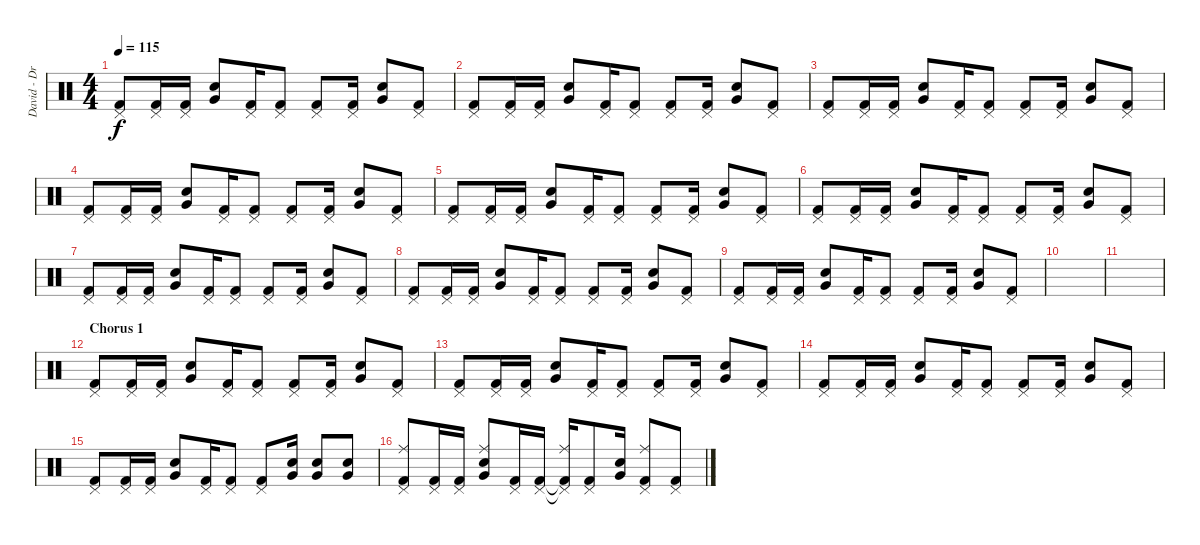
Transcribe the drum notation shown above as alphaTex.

\track ("David - Drums" "David - Dr") {instrument percussion}
\staff {score}
\articulation defaults
\ts (4 4)
\tempo 115
\clef neutral
\ks c
("Kick (hit) 2" "Pedal Hi-Hat (hit)").8{dy f} ("Kick (hit) 2" "Pedal Hi-Hat (hit)").16 ("Kick (hit) 2" "Pedal Hi-Hat (hit)").16 ("Snare (hit) 2" "Very Low Tom (hit)").8 ("Kick (hit) 2" "Pedal Hi-Hat (hit)").16 ("Kick (hit) 2" "Pedal Hi-Hat (hit)").8 ("Kick (hit) 2" "Pedal Hi-Hat (hit)").8 ("Kick (hit) 2" "Pedal Hi-Hat (hit)").16 ("Snare (hit) 2" "Very Low Tom (hit)").8 ("Kick (hit) 2" "Pedal Hi-Hat (hit)").8 |
("Kick (hit) 2" "Pedal Hi-Hat (hit)").8 ("Kick (hit) 2" "Pedal Hi-Hat (hit)").16 ("Kick (hit) 2" "Pedal Hi-Hat (hit)").16 ("Snare (hit) 2" "Very Low Tom (hit)").8 ("Kick (hit) 2" "Pedal Hi-Hat (hit)").16 ("Kick (hit) 2" "Pedal Hi-Hat (hit)").8 ("Kick (hit) 2" "Pedal Hi-Hat (hit)").8 ("Kick (hit) 2" "Pedal Hi-Hat (hit)").16 ("Snare (hit) 2" "Very Low Tom (hit)").8 ("Kick (hit) 2" "Pedal Hi-Hat (hit)").8 |
("Kick (hit) 2" "Pedal Hi-Hat (hit)").8 ("Kick (hit) 2" "Pedal Hi-Hat (hit)").16 ("Kick (hit) 2" "Pedal Hi-Hat (hit)").16 ("Snare (hit) 2" "Very Low Tom (hit)").8 ("Kick (hit) 2" "Pedal Hi-Hat (hit)").16 ("Kick (hit) 2" "Pedal Hi-Hat (hit)").8 ("Kick (hit) 2" "Pedal Hi-Hat (hit)").8 ("Kick (hit) 2" "Pedal Hi-Hat (hit)").16 ("Snare (hit) 2" "Very Low Tom (hit)").8 ("Kick (hit) 2" "Pedal Hi-Hat (hit)").8 |
("Kick (hit) 2" "Pedal Hi-Hat (hit)").8 ("Kick (hit) 2" "Pedal Hi-Hat (hit)").16 ("Kick (hit) 2" "Pedal Hi-Hat (hit)").16 ("Snare (hit) 2" "Very Low Tom (hit)").8 ("Kick (hit) 2" "Pedal Hi-Hat (hit)").16 ("Kick (hit) 2" "Pedal Hi-Hat (hit)").8 ("Kick (hit) 2" "Pedal Hi-Hat (hit)").8 ("Kick (hit) 2" "Pedal Hi-Hat (hit)").16 ("Snare (hit) 2" "Very Low Tom (hit)").8 ("Kick (hit) 2" "Pedal Hi-Hat (hit)").8 |
("Kick (hit) 2" "Pedal Hi-Hat (hit)").8 ("Kick (hit) 2" "Pedal Hi-Hat (hit)").16 ("Kick (hit) 2" "Pedal Hi-Hat (hit)").16 ("Snare (hit) 2" "Very Low Tom (hit)").8 ("Kick (hit) 2" "Pedal Hi-Hat (hit)").16 ("Kick (hit) 2" "Pedal Hi-Hat (hit)").8 ("Kick (hit) 2" "Pedal Hi-Hat (hit)").8 ("Kick (hit) 2" "Pedal Hi-Hat (hit)").16 ("Snare (hit) 2" "Very Low Tom (hit)").8 ("Kick (hit) 2" "Pedal Hi-Hat (hit)").8 |
("Kick (hit) 2" "Pedal Hi-Hat (hit)").8 ("Kick (hit) 2" "Pedal Hi-Hat (hit)").16 ("Kick (hit) 2" "Pedal Hi-Hat (hit)").16 ("Snare (hit) 2" "Very Low Tom (hit)").8 ("Kick (hit) 2" "Pedal Hi-Hat (hit)").16 ("Kick (hit) 2" "Pedal Hi-Hat (hit)").8 ("Kick (hit) 2" "Pedal Hi-Hat (hit)").8 ("Kick (hit) 2" "Pedal Hi-Hat (hit)").16 ("Snare (hit) 2" "Very Low Tom (hit)").8 ("Kick (hit) 2" "Pedal Hi-Hat (hit)").8 |
("Kick (hit) 2" "Pedal Hi-Hat (hit)").8 ("Kick (hit) 2" "Pedal Hi-Hat (hit)").16 ("Kick (hit) 2" "Pedal Hi-Hat (hit)").16 ("Snare (hit) 2" "Very Low Tom (hit)").8 ("Kick (hit) 2" "Pedal Hi-Hat (hit)").16 ("Kick (hit) 2" "Pedal Hi-Hat (hit)").8 ("Kick (hit) 2" "Pedal Hi-Hat (hit)").8 ("Kick (hit) 2" "Pedal Hi-Hat (hit)").16 ("Snare (hit) 2" "Very Low Tom (hit)").8 ("Kick (hit) 2" "Pedal Hi-Hat (hit)").8 |
("Kick (hit) 2" "Pedal Hi-Hat (hit)").8 ("Kick (hit) 2" "Pedal Hi-Hat (hit)").16 ("Kick (hit) 2" "Pedal Hi-Hat (hit)").16 ("Snare (hit) 2" "Very Low Tom (hit)").8 ("Kick (hit) 2" "Pedal Hi-Hat (hit)").16 ("Kick (hit) 2" "Pedal Hi-Hat (hit)").8 ("Kick (hit) 2" "Pedal Hi-Hat (hit)").8 ("Kick (hit) 2" "Pedal Hi-Hat (hit)").16 ("Snare (hit) 2" "Very Low Tom (hit)").8 ("Kick (hit) 2" "Pedal Hi-Hat (hit)").8 |
("Kick (hit) 2" "Pedal Hi-Hat (hit)").8 ("Kick (hit) 2" "Pedal Hi-Hat (hit)").16 ("Kick (hit) 2" "Pedal Hi-Hat (hit)").16 ("Snare (hit) 2" "Very Low Tom (hit)").8 ("Kick (hit) 2" "Pedal Hi-Hat (hit)").16 ("Kick (hit) 2" "Pedal Hi-Hat (hit)").8 ("Kick (hit) 2" "Pedal Hi-Hat (hit)").8 ("Kick (hit) 2" "Pedal Hi-Hat (hit)").16 ("Snare (hit) 2" "Very Low Tom (hit)").8 ("Kick (hit) 2" "Pedal Hi-Hat (hit)").8 |
|
|
\section ("" "Chorus 1")
("Kick (hit) 2" "Pedal Hi-Hat (hit)").8 ("Kick (hit) 2" "Pedal Hi-Hat (hit)").16 ("Kick (hit) 2" "Pedal Hi-Hat (hit)").16 ("Snare (hit) 2" "Very Low Tom (hit)").8 ("Kick (hit) 2" "Pedal Hi-Hat (hit)").16 ("Kick (hit) 2" "Pedal Hi-Hat (hit)").8 ("Kick (hit) 2" "Pedal Hi-Hat (hit)").8 ("Kick (hit) 2" "Pedal Hi-Hat (hit)").16 ("Snare (hit) 2" "Very Low Tom (hit)").8 ("Kick (hit) 2" "Pedal Hi-Hat (hit)").8 |
("Kick (hit) 2" "Pedal Hi-Hat (hit)").8 ("Kick (hit) 2" "Pedal Hi-Hat (hit)").16 ("Kick (hit) 2" "Pedal Hi-Hat (hit)").16 ("Snare (hit) 2" "Very Low Tom (hit)").8 ("Kick (hit) 2" "Pedal Hi-Hat (hit)").16 ("Kick (hit) 2" "Pedal Hi-Hat (hit)").8 ("Kick (hit) 2" "Pedal Hi-Hat (hit)").8 ("Kick (hit) 2" "Pedal Hi-Hat (hit)").16 ("Snare (hit) 2" "Very Low Tom (hit)").8 ("Kick (hit) 2" "Pedal Hi-Hat (hit)").8 |
("Kick (hit) 2" "Pedal Hi-Hat (hit)").8 ("Kick (hit) 2" "Pedal Hi-Hat (hit)").16 ("Kick (hit) 2" "Pedal Hi-Hat (hit)").16 ("Snare (hit) 2" "Very Low Tom (hit)").8 ("Kick (hit) 2" "Pedal Hi-Hat (hit)").16 ("Kick (hit) 2" "Pedal Hi-Hat (hit)").8 ("Kick (hit) 2" "Pedal Hi-Hat (hit)").8 ("Kick (hit) 2" "Pedal Hi-Hat (hit)").16 ("Snare (hit) 2" "Very Low Tom (hit)").8 ("Kick (hit) 2" "Pedal Hi-Hat (hit)").8 |
("Kick (hit) 2" "Pedal Hi-Hat (hit)").8 ("Kick (hit) 2" "Pedal Hi-Hat (hit)").16 ("Kick (hit) 2" "Pedal Hi-Hat (hit)").16 ("Snare (hit) 2" "Very Low Tom (hit)").8 ("Kick (hit) 2" "Pedal Hi-Hat (hit)").16 ("Kick (hit) 2" "Pedal Hi-Hat (hit)").8 ("Kick (hit) 2" "Pedal Hi-Hat (hit)").8 ("Snare (hit) 2" "Very Low Tom (hit)").16 ("Snare (hit) 2" "Very Low Tom (hit)").8 ("Snare (hit) 2" "Very Low Tom (hit)").8 |
("Kick (hit) 2" "Pedal Hi-Hat (hit)" "Ride (middle)").8 ("Kick (hit) 2" "Pedal Hi-Hat (hit)").16 ("Kick (hit) 2" "Pedal Hi-Hat (hit)").16 ("Snare (hit) 2" "Very Low Tom (hit)" "Ride (middle)").8 ("Kick (hit) 2" "Pedal Hi-Hat (hit)").16 ("Kick (hit) 2" "Pedal Hi-Hat (hit)").16 ("Kick (hit) 2"{t} "Pedal Hi-Hat (hit)"{t} "Ride (middle)").16 ("Kick (hit) 2" "Pedal Hi-Hat (hit)").8 ("Snare (hit) 2" "Very Low Tom (hit)").16 ("Kick (hit) 2" "Pedal Hi-Hat (hit)" "Ride (middle)").8 ("Kick (hit) 2" "Pedal Hi-Hat (hit)").8
